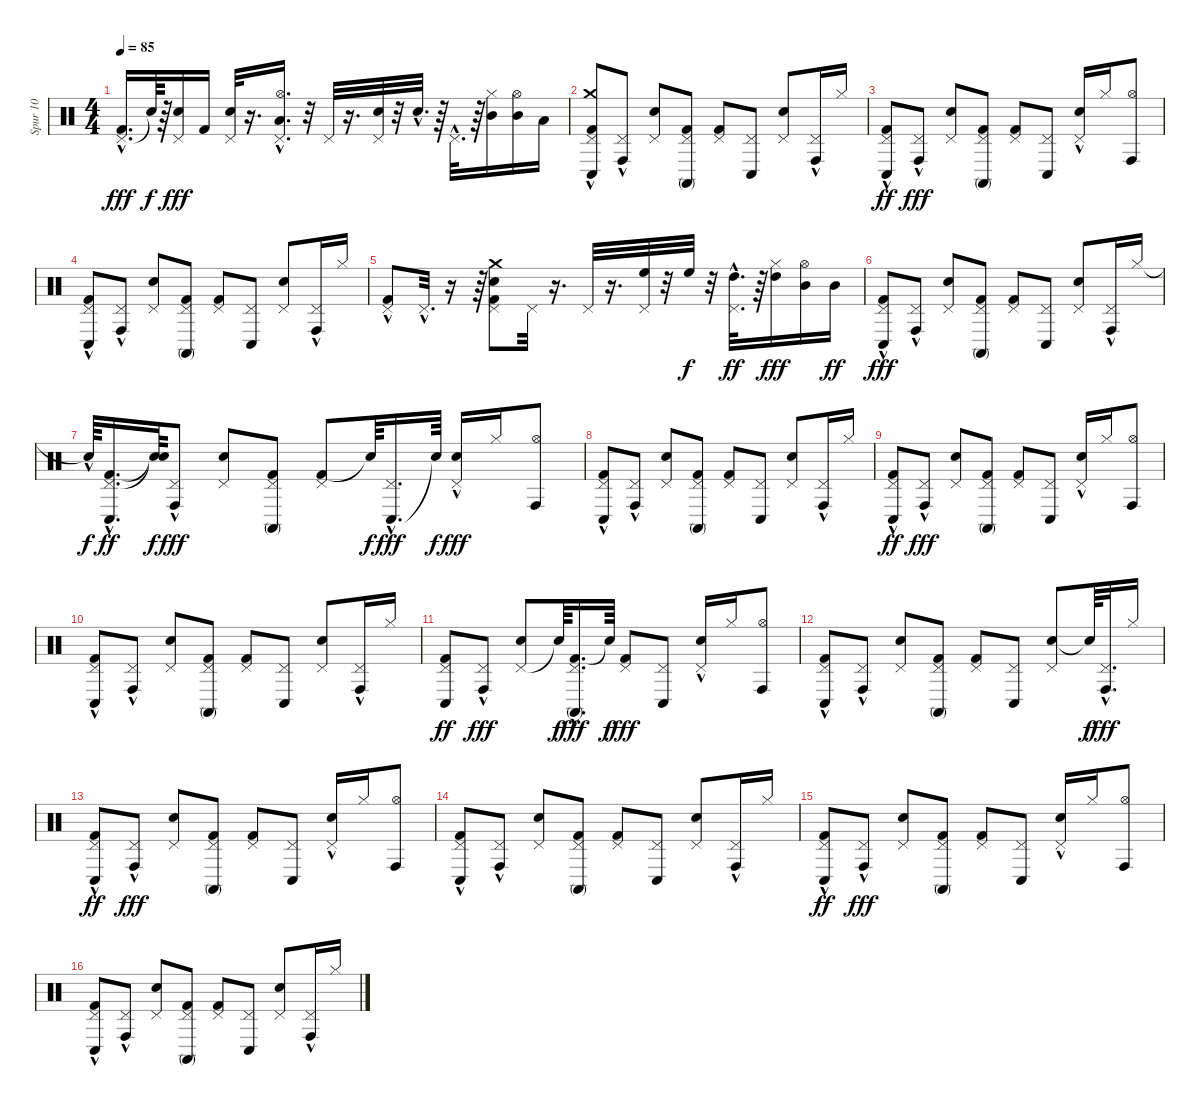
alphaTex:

\track ("Spur 10" "Spur 10") {instrument percussion}
\staff {score}
\articulation defaults
\ts (4 4)
\tempo 85
\clef neutral
\ks c
("Pedal Hi-Hat (hit)"{hac} "Kick (hit) 2"{hac}).16{d dy fff} "Snare (hit)"{t}.64{dy f} r.64 ("Snare (hit) 2" "Pedal Hi-Hat (hit)").16{dy fff} "Kick (hit) 2".16 ("Pedal Hi-Hat (hit)" "Snare (hit) 2").32 r.16{d} ("Hi-Hat (open)"{hac} "Low Tom (hit)" "Pedal Hi-Hat (hit)").16{d} r.32 "Pedal Hi-Hat (hit)".32 r.16{d} ("Snare (hit) 2" "Pedal Hi-Hat (hit)").32 r.32 "Snare (hit) 2"{hac}.32{d} r.64 "Pedal Hi-Hat (hit)"{hac}.32{d} r.64 ("Mid Tom (hit)" "Hi-Hat (closed)").16 ("Mid Tom (hit)" "Hi-Hat (open)").16 "Low Tom (hit)".16 |
("Crash medium (hit)"{hac} "Kick (hit) 2" "Conga low (hit)" "Pedal Hi-Hat (hit)"{hac}).8 ("Conga high (hit)" "Pedal Hi-Hat (hit)"{hac}).8 ("Snare (hit) 2" "Pedal Hi-Hat (hit)").8 ("Kick (hit) 2" "Conga high (mute)" "Pedal Hi-Hat (hit)").8 ("Kick (hit) 2" "Pedal Hi-Hat (hit)").8 ("Conga low (hit)" "Pedal Hi-Hat (hit)").8 ("Snare (hit) 2" "Pedal Hi-Hat (hit)").8 ("Conga high (hit)" "Pedal Hi-Hat (hit)"{hac}).16 "Hi-Hat (closed)".16 |
("Pedal Hi-Hat (hit)"{hac} "Kick (hit) 2" "Conga low (hit)").8{dy ff} ("Conga high (hit)" "Pedal Hi-Hat (hit)"{hac}).8{dy fff} ("Pedal Hi-Hat (hit)" "Snare (hit) 2").8 ("Kick (hit) 2" "Conga high (mute)" "Pedal Hi-Hat (hit)").8 ("Kick (hit) 2" "Pedal Hi-Hat (hit)").8 ("Conga low (hit)" "Pedal Hi-Hat (hit)").8 ("Snare (hit) 2" "Pedal Hi-Hat (hit)"{hac}).16 "Hi-Hat (closed)".16 ("Conga high (hit)" "Hi-Hat (open)").8 |
("Kick (hit) 2" "Conga low (hit)" "Pedal Hi-Hat (hit)"{hac}).8 ("Conga high (hit)" "Pedal Hi-Hat (hit)"{hac}).8 ("Snare (hit) 2" "Pedal Hi-Hat (hit)").8 ("Kick (hit) 2" "Conga high (mute)" "Pedal Hi-Hat (hit)").8 ("Kick (hit) 2" "Pedal Hi-Hat (hit)").8 ("Conga low (hit)" "Pedal Hi-Hat (hit)").8 ("Snare (hit) 2" "Pedal Hi-Hat (hit)").8 ("Conga high (hit)" "Pedal Hi-Hat (hit)"{hac}).16 "Hi-Hat (closed)".16 |
("Pedal Hi-Hat (hit)"{hac} "Kick (hit) 2").8 "Pedal Hi-Hat (hit)"{hac}.32{d} r.16 r.64 ("Kick (hit) 2" "Snare (hit) 2" "Pedal Hi-Hat (hit)" "Crash medium (hit)").8 "Pedal Hi-Hat (hit)".32 r.16{d} "Pedal Hi-Hat (hit)".32 r.16{d} ("High Floor Tom (hit)" "Pedal Hi-Hat (hit)").32 r.32 "High Floor Tom (hit)".32{dy f} r.32 ("Pedal Hi-Hat (hit)"{hac} "High Tom (hit)").32{d dy ff} r.64 ("High Tom (hit)" "Hi-Hat (closed)").16{dy fff} ("Mid Tom (hit)" "Hi-Hat (open)").16 "Mid Tom (hit)".16{dy ff} |
("Kick (hit) 2" "Conga low (hit)" "Pedal Hi-Hat (hit)"{hac}).8{dy fff} ("Conga high (hit)" "Pedal Hi-Hat (hit)"{hac}).8 ("Snare (hit) 2" "Pedal Hi-Hat (hit)").8 ("Kick (hit) 2" "Conga high (mute)" "Pedal Hi-Hat (hit)").8 ("Kick (hit) 2" "Pedal Hi-Hat (hit)").8 ("Conga low (hit)" "Pedal Hi-Hat (hit)").8 ("Snare (hit) 2" "Pedal Hi-Hat (hit)").8 ("Conga high (hit)" "Pedal Hi-Hat (hit)"{hac}).16 "Hi-Hat (closed)".16 |
"Snare (hit)"{hac t}.64{dy f} ("Pedal Hi-Hat (hit)" "Kick (hit) 2"{hac} "Conga low (hit)"{hac}).16{d dy ff} ("Snare (hit)"{t} "Snare (hit)"{t}).64{dy f} ("Conga high (hit)" "Pedal Hi-Hat (hit)"{hac}).8{dy fff} ("Pedal Hi-Hat (hit)" "Snare (hit) 2").8 ("Kick (hit) 2" "Conga high (mute)" "Pedal Hi-Hat (hit)").8 ("Kick (hit) 2" "Pedal Hi-Hat (hit)").8 "Snare (hit)"{t}.64{dy f} ("Conga low (hit)"{hac} "Pedal Hi-Hat (hit)").16{d dy fff} "Snare (hit)"{t}.64{dy f} ("Snare (hit) 2" "Pedal Hi-Hat (hit)"{hac}).16{dy fff} "Hi-Hat (closed)".16 ("Conga high (hit)" "Hi-Hat (open)").8 |
("Kick (hit) 2" "Conga low (hit)" "Pedal Hi-Hat (hit)"{hac}).8 ("Conga high (hit)" "Pedal Hi-Hat (hit)"{hac}).8 ("Snare (hit) 2" "Pedal Hi-Hat (hit)").8 ("Kick (hit) 2" "Conga high (mute)" "Pedal Hi-Hat (hit)").8 ("Kick (hit) 2" "Pedal Hi-Hat (hit)").8 ("Conga low (hit)" "Pedal Hi-Hat (hit)").8 ("Snare (hit) 2" "Pedal Hi-Hat (hit)").8 ("Conga high (hit)" "Pedal Hi-Hat (hit)"{hac}).16 "Hi-Hat (closed)".16 |
("Pedal Hi-Hat (hit)"{hac} "Kick (hit) 2" "Conga low (hit)").8{dy ff} ("Conga high (hit)" "Pedal Hi-Hat (hit)"{hac}).8{dy fff} ("Pedal Hi-Hat (hit)" "Snare (hit) 2").8 ("Kick (hit) 2" "Conga high (mute)" "Pedal Hi-Hat (hit)").8 ("Kick (hit) 2" "Pedal Hi-Hat (hit)").8 ("Conga low (hit)" "Pedal Hi-Hat (hit)").8 ("Snare (hit) 2" "Pedal Hi-Hat (hit)"{hac}).16 "Hi-Hat (closed)".16 ("Conga high (hit)" "Hi-Hat (open)").8 |
("Kick (hit) 2" "Conga low (hit)" "Pedal Hi-Hat (hit)"{hac}).8 ("Conga high (hit)" "Pedal Hi-Hat (hit)"{hac}).8 ("Snare (hit) 2" "Pedal Hi-Hat (hit)").8 ("Kick (hit) 2" "Conga high (mute)" "Pedal Hi-Hat (hit)").8 ("Kick (hit) 2" "Pedal Hi-Hat (hit)").8 ("Conga low (hit)" "Pedal Hi-Hat (hit)").8 ("Snare (hit) 2" "Pedal Hi-Hat (hit)").8 ("Conga high (hit)" "Pedal Hi-Hat (hit)"{hac}).16 "Hi-Hat (closed)".16 |
("Pedal Hi-Hat (hit)" "Kick (hit) 2" "Conga low (hit)").8{dy ff} ("Conga high (hit)" "Pedal Hi-Hat (hit)"{hac}).8{dy fff} ("Pedal Hi-Hat (hit)" "Snare (hit) 2").8 "Snare (hit)"{t}.64{dy f} ("Kick (hit) 2" "Conga high (mute)"{hac} "Pedal Hi-Hat (hit)").16{d dy fff} "Snare (hit)"{t}.64{dy f} ("Kick (hit) 2" "Pedal Hi-Hat (hit)").8{dy fff} ("Conga low (hit)" "Pedal Hi-Hat (hit)").8 ("Snare (hit) 2" "Pedal Hi-Hat (hit)"{hac}).16 "Hi-Hat (closed)".16 ("Conga high (hit)" "Hi-Hat (open)").8 |
("Kick (hit) 2" "Conga low (hit)" "Pedal Hi-Hat (hit)"{hac}).8 ("Conga high (hit)" "Pedal Hi-Hat (hit)"{hac}).8 ("Snare (hit) 2" "Pedal Hi-Hat (hit)").8 ("Kick (hit) 2" "Conga high (mute)" "Pedal Hi-Hat (hit)").8 ("Kick (hit) 2" "Pedal Hi-Hat (hit)").8 ("Conga low (hit)" "Pedal Hi-Hat (hit)").8 ("Snare (hit) 2" "Pedal Hi-Hat (hit)").8 "Snare (hit)"{t}.64{dy f} ("Conga high (hit)"{hac} "Pedal Hi-Hat (hit)").32{d dy fff} "Hi-Hat (closed)".16 |
("Pedal Hi-Hat (hit)"{hac} "Kick (hit) 2" "Conga low (hit)").8{dy ff} ("Conga high (hit)" "Pedal Hi-Hat (hit)"{hac}).8{dy fff} ("Pedal Hi-Hat (hit)" "Snare (hit) 2").8 ("Kick (hit) 2" "Conga high (mute)" "Pedal Hi-Hat (hit)").8 ("Kick (hit) 2" "Pedal Hi-Hat (hit)").8 ("Conga low (hit)" "Pedal Hi-Hat (hit)").8 ("Snare (hit) 2" "Pedal Hi-Hat (hit)"{hac}).16 "Hi-Hat (closed)".16 ("Conga high (hit)" "Hi-Hat (open)").8 |
("Kick (hit) 2" "Conga low (hit)" "Pedal Hi-Hat (hit)"{hac}).8 ("Conga high (hit)" "Pedal Hi-Hat (hit)"{hac}).8 ("Snare (hit) 2" "Pedal Hi-Hat (hit)").8 ("Kick (hit) 2" "Conga high (mute)" "Pedal Hi-Hat (hit)").8 ("Kick (hit) 2" "Pedal Hi-Hat (hit)").8 ("Conga low (hit)" "Pedal Hi-Hat (hit)").8 ("Snare (hit) 2" "Pedal Hi-Hat (hit)").8 ("Conga high (hit)" "Pedal Hi-Hat (hit)"{hac}).16 "Hi-Hat (closed)".16 |
("Pedal Hi-Hat (hit)"{hac} "Kick (hit) 2" "Conga low (hit)").8{dy ff} ("Conga high (hit)" "Pedal Hi-Hat (hit)"{hac}).8{dy fff} ("Pedal Hi-Hat (hit)" "Snare (hit) 2").8 ("Kick (hit) 2" "Conga high (mute)" "Pedal Hi-Hat (hit)").8 ("Kick (hit) 2" "Pedal Hi-Hat (hit)").8 ("Conga low (hit)" "Pedal Hi-Hat (hit)").8 ("Snare (hit) 2" "Pedal Hi-Hat (hit)"{hac}).16 "Hi-Hat (closed)".16 ("Conga high (hit)" "Hi-Hat (open)").8 |
("Kick (hit) 2" "Conga low (hit)" "Pedal Hi-Hat (hit)"{hac}).8 ("Conga high (hit)" "Pedal Hi-Hat (hit)"{hac}).8 ("Snare (hit) 2" "Pedal Hi-Hat (hit)").8 ("Kick (hit) 2" "Conga high (mute)" "Pedal Hi-Hat (hit)").8 ("Kick (hit) 2" "Pedal Hi-Hat (hit)").8 ("Conga low (hit)" "Pedal Hi-Hat (hit)").8 ("Snare (hit) 2" "Pedal Hi-Hat (hit)").8 ("Conga high (hit)" "Pedal Hi-Hat (hit)"{hac}).16 "Hi-Hat (closed)".16
